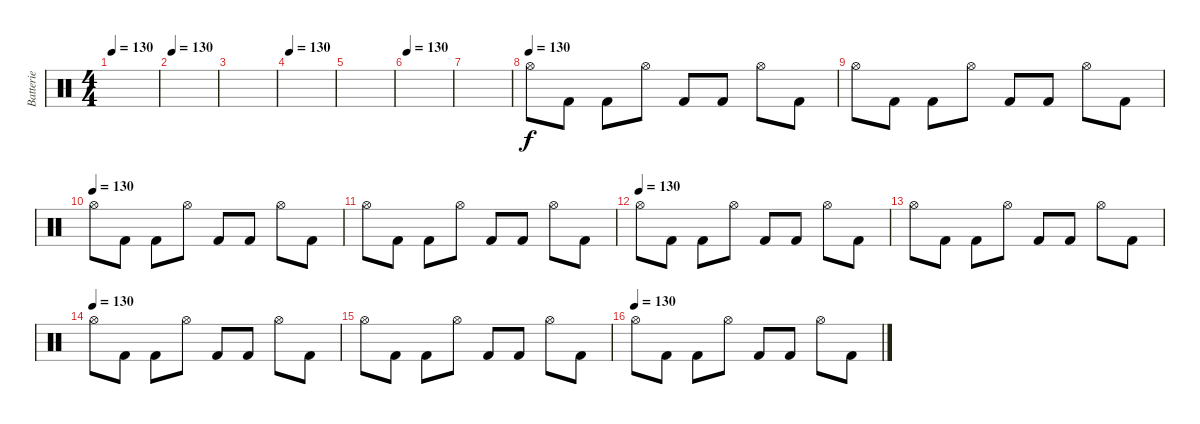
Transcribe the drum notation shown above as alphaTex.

\track ("Batterie" "Batterie") {instrument percussion}
\staff {score}
\articulation defaults
\ts (4 4)
\tempo 130
\clef neutral
\ks c
|
\tempo 130
|
|
\tempo 130
|
|
\tempo 130
|
|
\tempo (130)
"Hi-Hat (open)".8{volume 6} "Kick (hit) 2".8 "Kick (hit) 2".8 "Hi-Hat (open)".8 "Kick (hit) 2".8 "Kick (hit) 2".8 "Hi-Hat (open)".8 "Kick (hit) 2".8 |
"Hi-Hat (open)".8{volume 6} "Kick (hit) 2".8 "Kick (hit) 2".8 "Hi-Hat (open)".8 "Kick (hit) 2".8 "Kick (hit) 2".8 "Hi-Hat (open)".8 "Kick (hit) 2".8 |
\tempo (130)
"Hi-Hat (open)".8{volume 6} "Kick (hit) 2".8 "Kick (hit) 2".8 "Hi-Hat (open)".8 "Kick (hit) 2".8 "Kick (hit) 2".8 "Hi-Hat (open)".8 "Kick (hit) 2".8 |
"Hi-Hat (open)".8{volume 6} "Kick (hit) 2".8 "Kick (hit) 2".8 "Hi-Hat (open)".8 "Kick (hit) 2".8 "Kick (hit) 2".8 "Hi-Hat (open)".8 "Kick (hit) 2".8 |
\tempo (130)
"Hi-Hat (open)".8{volume 6} "Kick (hit) 2".8 "Kick (hit) 2".8 "Hi-Hat (open)".8 "Kick (hit) 2".8 "Kick (hit) 2".8 "Hi-Hat (open)".8 "Kick (hit) 2".8 |
"Hi-Hat (open)".8{volume 6} "Kick (hit) 2".8 "Kick (hit) 2".8 "Hi-Hat (open)".8 "Kick (hit) 2".8 "Kick (hit) 2".8 "Hi-Hat (open)".8 "Kick (hit) 2".8 |
\tempo (130)
"Hi-Hat (open)".8{volume 6} "Kick (hit) 2".8 "Kick (hit) 2".8 "Hi-Hat (open)".8 "Kick (hit) 2".8 "Kick (hit) 2".8 "Hi-Hat (open)".8 "Kick (hit) 2".8 |
"Hi-Hat (open)".8{volume 6} "Kick (hit) 2".8 "Kick (hit) 2".8 "Hi-Hat (open)".8 "Kick (hit) 2".8 "Kick (hit) 2".8 "Hi-Hat (open)".8 "Kick (hit) 2".8 |
\tempo (130)
"Hi-Hat (open)".8{volume 6} "Kick (hit) 2".8 "Kick (hit) 2".8 "Hi-Hat (open)".8 "Kick (hit) 2".8 "Kick (hit) 2".8 "Hi-Hat (open)".8 "Kick (hit) 2".8
